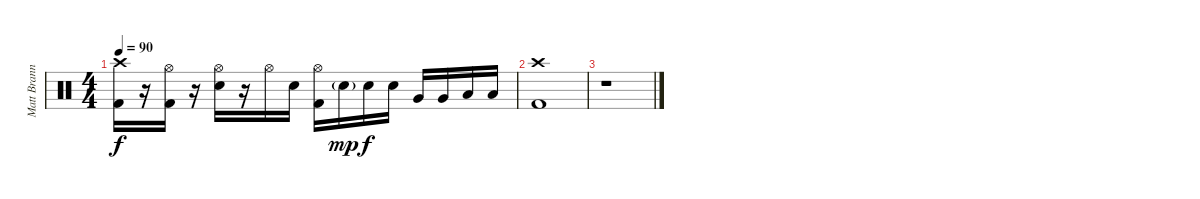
\track ("Matt Brann - Drums" "Matt Brann") {instrument percussion}
\staff {score}
\articulation defaults
\ts (4 4)
\tempo 90
\clef neutral
\ks c
("Crash high (hit)" "Kick (hit) 2").16{dy f} r.16 ("Hi-Hat (open)" "Kick (hit) 2").16 r.16 ("Hi-Hat (open)" "Snare (hit) 2").16 r.16 "Hi-Hat (open)".16 "Snare (hit) 2".16 ("Hi-Hat (open)" "Kick (hit) 2").16 "Snare (hit) 2"{g}.16{dy mp} "Snare (hit) 2".16{dy f} "Snare (hit) 2".16 "Very Low Tom (hit)".16 "Very Low Tom (hit)".16 "Low Floor Tom (hit)".16 "Low Floor Tom (hit)".16 |
("Crash high (hit)" "Kick (hit) 2").1 |
r.1
